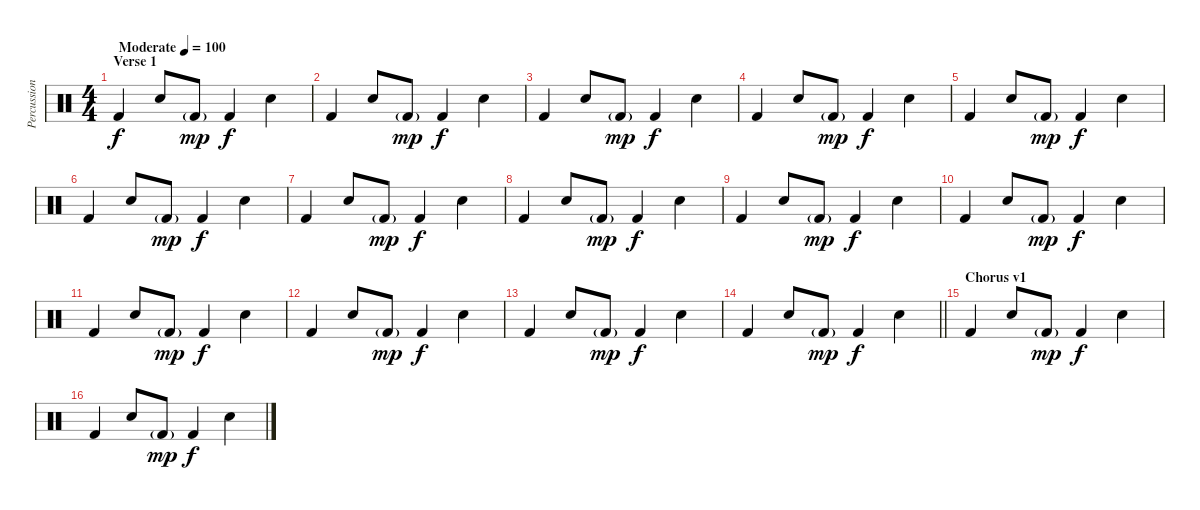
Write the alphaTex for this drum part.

\track ("Percussion" "Percussion") {instrument percussion}
\staff {score}
\articulation defaults
\ts (4 4)
\section ("" "Verse 1")
\tempo (100 "Moderate")
\clef neutral
\ks c "Kick (hit) 2".4{dy f} "Snare (hit) 2".8 "Kick (hit) 2"{g}.8{dy mp} "Kick (hit) 2".4{dy f} "Snare (hit) 2".4
|
"Kick (hit) 2".4 "Snare (hit) 2".8 "Kick (hit) 2"{g}.8{dy mp} "Kick (hit) 2".4{dy f} "Snare (hit) 2".4 |
"Kick (hit) 2".4 "Snare (hit) 2".8 "Kick (hit) 2"{g}.8{dy mp} "Kick (hit) 2".4{dy f} "Snare (hit) 2".4 |
"Kick (hit) 2".4 "Snare (hit) 2".8 "Kick (hit) 2"{g}.8{dy mp} "Kick (hit) 2".4{dy f} "Snare (hit) 2".4 |
"Kick (hit) 2".4 "Snare (hit) 2".8 "Kick (hit) 2"{g}.8{dy mp} "Kick (hit) 2".4{dy f} "Snare (hit) 2".4 |
"Kick (hit) 2".4 "Snare (hit) 2".8 "Kick (hit) 2"{g}.8{dy mp} "Kick (hit) 2".4{dy f} "Snare (hit) 2".4 |
"Kick (hit) 2".4 "Snare (hit) 2".8 "Kick (hit) 2"{g}.8{dy mp} "Kick (hit) 2".4{dy f} "Snare (hit) 2".4 |
"Kick (hit) 2".4 "Snare (hit) 2".8 "Kick (hit) 2"{g}.8{dy mp} "Kick (hit) 2".4{dy f} "Snare (hit) 2".4 |
"Kick (hit) 2".4 "Snare (hit) 2".8 "Kick (hit) 2"{g}.8{dy mp} "Kick (hit) 2".4{dy f} "Snare (hit) 2".4 |
"Kick (hit) 2".4 "Snare (hit) 2".8 "Kick (hit) 2"{g}.8{dy mp} "Kick (hit) 2".4{dy f} "Snare (hit) 2".4 |
"Kick (hit) 2".4 "Snare (hit) 2".8 "Kick (hit) 2"{g}.8{dy mp} "Kick (hit) 2".4{dy f} "Snare (hit) 2".4 |
"Kick (hit) 2".4 "Snare (hit) 2".8 "Kick (hit) 2"{g}.8{dy mp} "Kick (hit) 2".4{dy f} "Snare (hit) 2".4 |
"Kick (hit) 2".4 "Snare (hit) 2".8 "Kick (hit) 2"{g}.8{dy mp} "Kick (hit) 2".4{dy f} "Snare (hit) 2".4 |
\barLineRight lightlight "Kick (hit) 2".4 "Snare (hit) 2".8 "Kick (hit) 2"{g}.8{dy mp} "Kick (hit) 2".4{dy f} "Snare (hit) 2".4
|
\section ("" "Chorus v1")
"Kick (hit) 2".4 "Snare (hit) 2".8 "Kick (hit) 2"{g}.8{dy mp} "Kick (hit) 2".4{dy f} "Snare (hit) 2".4 |
"Kick (hit) 2".4 "Snare (hit) 2".8 "Kick (hit) 2"{g}.8{dy mp} "Kick (hit) 2".4{dy f} "Snare (hit) 2".4
